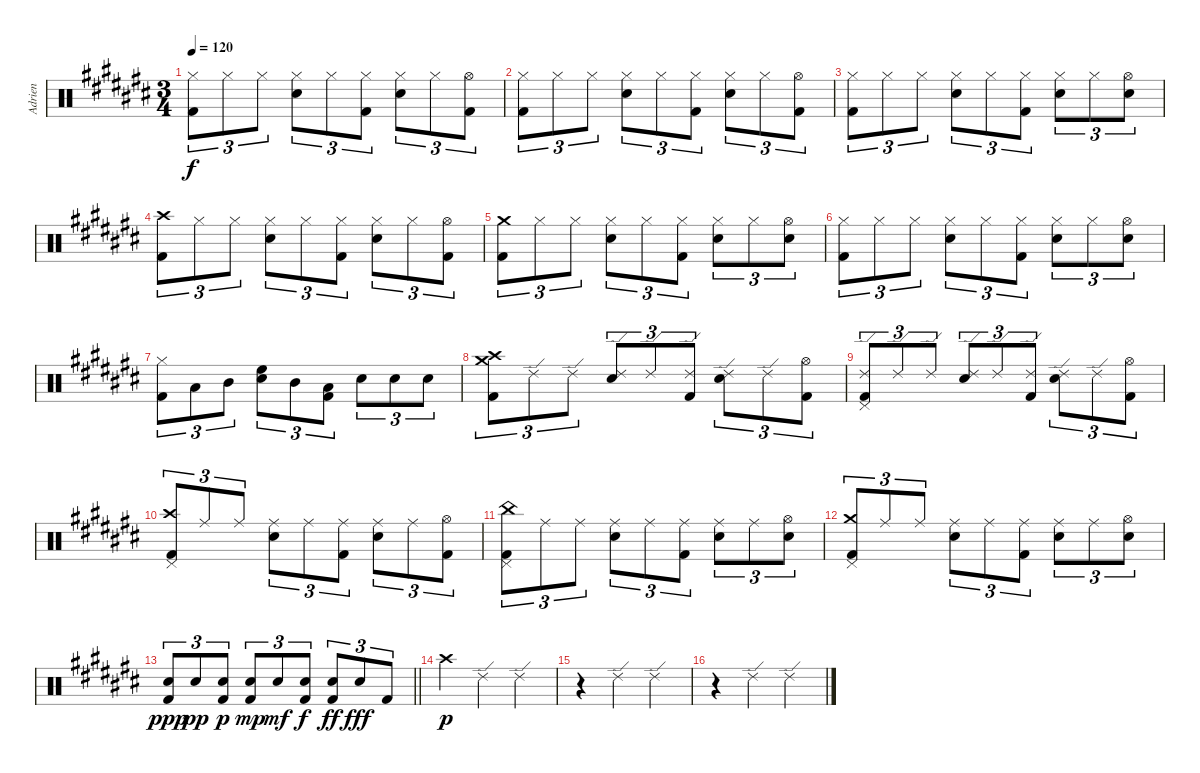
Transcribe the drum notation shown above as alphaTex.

\track ("Adrien" "Adrien") {instrument percussion}
\staff {score}
\articulation defaults
\ts (3 4)
\tempo 120
\clef neutral
\ks c#
("Hi-Hat (closed)" "Kick (hit) 2").8{tu (3 2) dy f} "Hi-Hat (closed)".8{tu (3 2)} "Hi-Hat (closed)".8{tu (3 2)} ("Hi-Hat (closed)" "Electric Snare (hit)").8{tu (3 2)} "Hi-Hat (closed)".8{tu (3 2)} ("Hi-Hat (closed)" "Kick (hit) 2").8{tu (3 2)} ("Hi-Hat (closed)" "Electric Snare (hit)").8{tu (3 2)} "Hi-Hat (closed)".8{tu (3 2)} ("Hi-Hat (open)" "Kick (hit) 2").8{tu (3 2)} |
("Hi-Hat (closed)" "Kick (hit) 2").8{tu (3 2)} "Hi-Hat (closed)".8{tu (3 2)} "Hi-Hat (closed)".8{tu (3 2)} ("Hi-Hat (closed)" "Electric Snare (hit)").8{tu (3 2)} "Hi-Hat (closed)".8{tu (3 2)} ("Hi-Hat (closed)" "Kick (hit) 2").8{tu (3 2)} ("Hi-Hat (closed)" "Electric Snare (hit)").8{tu (3 2)} "Hi-Hat (closed)".8{tu (3 2)} ("Hi-Hat (open)" "Kick (hit) 2").8{tu (3 2)} |
("Hi-Hat (closed)" "Kick (hit) 2").8{tu (3 2)} "Hi-Hat (closed)".8{tu (3 2)} "Hi-Hat (closed)".8{tu (3 2)} ("Hi-Hat (closed)" "Electric Snare (hit)").8{tu (3 2)} "Hi-Hat (closed)".8{tu (3 2)} ("Hi-Hat (closed)" "Kick (hit) 2").8{tu (3 2)} ("Hi-Hat (closed)" "Electric Snare (hit)").8{tu (3 2)} "Hi-Hat (closed)".8{tu (3 2)} ("Hi-Hat (open)" "Electric Snare (hit)").8{tu (3 2)} |
("Crash high (hit)" "Kick (hit) 2").8{tu (3 2)} "Hi-Hat (closed)".8{tu (3 2)} "Hi-Hat (closed)".8{tu (3 2)} ("Hi-Hat (closed)" "Electric Snare (hit)").8{tu (3 2)} "Hi-Hat (closed)".8{tu (3 2)} ("Hi-Hat (closed)" "Kick (hit) 2").8{tu (3 2)} ("Hi-Hat (closed)" "Electric Snare (hit)").8{tu (3 2)} "Hi-Hat (closed)".8{tu (3 2)} ("Hi-Hat (open)" "Kick (hit) 2").8{tu (3 2)} |
("Crash medium (hit)" "Kick (hit) 2").8{tu (3 2)} "Hi-Hat (closed)".8{tu (3 2)} "Hi-Hat (closed)".8{tu (3 2)} ("Hi-Hat (closed)" "Electric Snare (hit)").8{tu (3 2)} "Hi-Hat (closed)".8{tu (3 2)} ("Hi-Hat (closed)" "Kick (hit) 2").8{tu (3 2)} ("Hi-Hat (closed)" "Electric Snare (hit)").8{tu (3 2)} "Hi-Hat (closed)".8{tu (3 2)} ("Hi-Hat (open)" "Electric Snare (hit)").8{tu (3 2)} |
("Hi-Hat (closed)" "Kick (hit) 2").8{tu (3 2)} "Hi-Hat (closed)".8{tu (3 2)} "Hi-Hat (closed)".8{tu (3 2)} ("Hi-Hat (closed)" "Electric Snare (hit)").8{tu (3 2)} "Hi-Hat (closed)".8{tu (3 2)} ("Hi-Hat (closed)" "Kick (hit) 2").8{tu (3 2)} ("Hi-Hat (closed)" "Electric Snare (hit)").8{tu (3 2)} "Hi-Hat (closed)".8{tu (3 2)} ("Hi-Hat (open)" "Electric Snare (hit)").8{tu (3 2)} |
("Hi-Hat (closed)" "Kick (hit) 2").8{tu (3 2)} "Low Tom (hit)".8{tu (3 2)} "Mid Tom (hit)".8{tu (3 2)} ("High Floor Tom (hit)" "Electric Snare (hit)").8{tu (3 2)} "Mid Tom (hit)".8{tu (3 2)} ("Low Tom (hit)" "Kick (hit) 2").8{tu (3 2)} "Electric Snare (hit)".8{tu (3 2)} "Electric Snare (hit)".8{tu (3 2)} "Electric Snare (hit)".8{tu (3 2)} |
("Crash medium (hit)" "Crash high (hit)" "Kick (hit) 2").8{tu (3 2)} "Ride (edge) 2".8{tu (3 2)} "Ride (edge) 2".8{tu (3 2)} ("Ride (edge) 2" "Electric Snare (hit)").8{tu (3 2)} "Ride (edge) 2".8{tu (3 2)} ("Ride (edge) 2" "Kick (hit) 2").8{tu (3 2)} ("Ride (edge) 2" "Electric Snare (hit)").8{tu (3 2)} "Ride (edge) 2".8{tu (3 2)} ("Hi-Hat (open)" "Kick (hit) 2").8{tu (3 2)} |
("Ride (edge) 2" "Pedal Hi-Hat (hit)" "Kick (hit) 2").8{tu (3 2)} "Ride (edge) 2".8{tu (3 2)} "Ride (edge) 2".8{tu (3 2)} ("Ride (edge) 2" "Electric Snare (hit)").8{tu (3 2)} "Ride (edge) 2".8{tu (3 2)} ("Ride (edge) 2" "Kick (hit) 2").8{tu (3 2)} ("Ride (edge) 2" "Electric Snare (hit)").8{tu (3 2)} "Ride (edge) 2".8{tu (3 2)} ("Hi-Hat (open)" "Kick (hit) 2").8{tu (3 2)} |
("Crash high (hit)" "Pedal Hi-Hat (hit)" "Kick (hit) 2").8{tu (3 2)} "Ride (middle)".8{tu (3 2)} "Ride (middle)".8{tu (3 2)} ("Ride (middle)" "Electric Snare (hit)").8{tu (3 2)} "Ride (middle)".8{tu (3 2)} ("Ride (middle)" "Kick (hit) 2").8{tu (3 2)} ("Ride (middle)" "Electric Snare (hit)").8{tu (3 2)} "Ride (middle)".8{tu (3 2)} ("Hi-Hat (open)" "Kick (hit) 2").8{tu (3 2)} |
("China (hit)" "Pedal Hi-Hat (hit)" "Kick (hit) 2").8{tu (3 2)} "Ride (middle)".8{tu (3 2)} "Ride (middle)".8{tu (3 2)} ("Ride (middle)" "Electric Snare (hit)").8{tu (3 2)} "Ride (middle)".8{tu (3 2)} ("Ride (middle)" "Kick (hit) 2").8{tu (3 2)} ("Ride (middle)" "Electric Snare (hit)").8{tu (3 2)} "Ride (middle)".8{tu (3 2)} ("Hi-Hat (open)" "Electric Snare (hit)").8{tu (3 2)} |
("Crash medium (hit)" "Pedal Hi-Hat (hit)" "Kick (hit) 2").8{tu (3 2)} "Ride (middle)".8{tu (3 2)} "Ride (middle)".8{tu (3 2)} ("Ride (middle)" "Electric Snare (hit)").8{tu (3 2)} "Ride (middle)".8{tu (3 2)} ("Ride (middle)" "Kick (hit) 2").8{tu (3 2)} ("Ride (middle)" "Electric Snare (hit)").8{tu (3 2)} "Ride (middle)".8{tu (3 2)} ("Hi-Hat (open)" "Electric Snare (hit)").8{tu (3 2)} |
\barLineRight lightlight
("Snare (hit) 2" "Kick (hit) 2").8{tu (3 2) dy ppp} "Snare (hit) 2".8{tu (3 2) dy pp} ("Snare (hit) 2" "Kick (hit) 2").8{tu (3 2) dy p} ("Snare (hit) 2" "Kick (hit) 2").8{tu (3 2) dy mp} "Snare (hit) 2".8{tu (3 2) dy mf} ("Snare (hit) 2" "Kick (hit) 2").8{tu (3 2) dy f} ("Snare (hit) 2" "Kick (hit) 2").8{tu (3 2) dy ff} "Snare (hit) 2".8{tu (3 2) dy fff} "Kick (hit) 2".8{tu (3 2)} |
"Crash high (hit)".4{dy p} "Ride (edge) 2".4 "Ride (edge) 2".4 |
r.4 "Ride (edge) 2".4 "Ride (edge) 2".4 |
r.4 "Ride (edge) 2".4 "Ride (edge) 2".4
